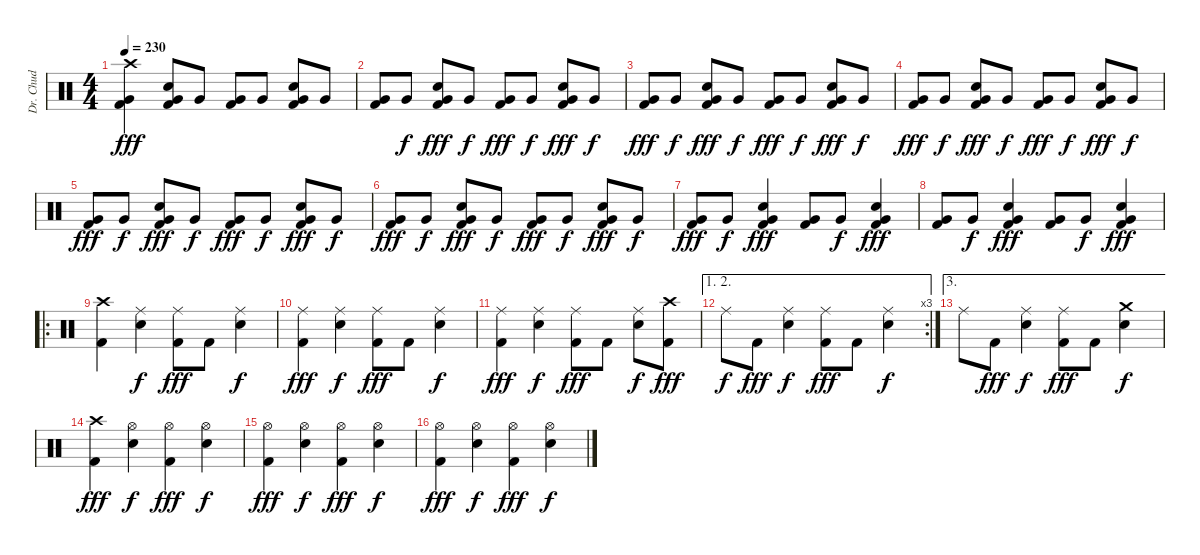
\track ("Dr. Chud" "Dr. Chud") {instrument percussion}
\staff {score}
\articulation defaults
\ts (4 4)
\tempo 230
\clef neutral
\ks c
("Crash high (hit)" "Very Low Tom (hit)" "Kick (hit) 2").4{dy fff} ("Snare (hit) 2" "Very Low Tom (hit)" "Kick (hit) 2").8 "Very Low Tom (hit)".8 ("Very Low Tom (hit)" "Kick (hit) 2").8 "Very Low Tom (hit)".8 ("Snare (hit) 2" "Very Low Tom (hit)" "Kick (hit) 2").8 "Very Low Tom (hit)".8 |
("Very Low Tom (hit)" "Kick (hit) 2").8 "Very Low Tom (hit)".8{dy f} ("Snare (hit) 2" "Very Low Tom (hit)" "Kick (hit) 2").8{dy fff} "Very Low Tom (hit)".8{dy f} ("Very Low Tom (hit)" "Kick (hit) 2").8{dy fff} "Very Low Tom (hit)".8{dy f} ("Snare (hit) 2" "Very Low Tom (hit)" "Kick (hit) 2").8{dy fff} "Very Low Tom (hit)".8{dy f} |
("Very Low Tom (hit)" "Kick (hit) 2").8{dy fff} "Very Low Tom (hit)".8{dy f} ("Snare (hit) 2" "Very Low Tom (hit)" "Kick (hit) 2").8{dy fff} "Very Low Tom (hit)".8{dy f} ("Very Low Tom (hit)" "Kick (hit) 2").8{dy fff} "Very Low Tom (hit)".8{dy f} ("Snare (hit) 2" "Very Low Tom (hit)" "Kick (hit) 2").8{dy fff} "Very Low Tom (hit)".8{dy f} |
("Very Low Tom (hit)" "Kick (hit) 2").8{dy fff} "Very Low Tom (hit)".8{dy f} ("Snare (hit) 2" "Very Low Tom (hit)" "Kick (hit) 2").8{dy fff} "Very Low Tom (hit)".8{dy f} ("Very Low Tom (hit)" "Kick (hit) 2").8{dy fff} "Very Low Tom (hit)".8{dy f} ("Snare (hit) 2" "Very Low Tom (hit)" "Kick (hit) 2").8{dy fff} "Very Low Tom (hit)".8{dy f} |
("Very Low Tom (hit)" "Kick (hit) 2").8{dy fff} "Very Low Tom (hit)".8{dy f} ("Snare (hit) 2" "Very Low Tom (hit)" "Kick (hit) 2").8{dy fff} "Very Low Tom (hit)".8{dy f} ("Very Low Tom (hit)" "Kick (hit) 2").8{dy fff} "Very Low Tom (hit)".8{dy f} ("Snare (hit) 2" "Very Low Tom (hit)" "Kick (hit) 2").8{dy fff} "Very Low Tom (hit)".8{dy f} |
("Very Low Tom (hit)" "Kick (hit) 2").8{dy fff} "Very Low Tom (hit)".8{dy f} ("Snare (hit) 2" "Very Low Tom (hit)" "Kick (hit) 2").8{dy fff} "Very Low Tom (hit)".8{dy f} ("Very Low Tom (hit)" "Kick (hit) 2").8{dy fff} "Very Low Tom (hit)".8{dy f} ("Snare (hit) 2" "Very Low Tom (hit)" "Kick (hit) 2").8{dy fff} "Very Low Tom (hit)".8{dy f} |
("Very Low Tom (hit)" "Kick (hit) 2").8{dy fff} "Very Low Tom (hit)".8{dy f} ("Snare (hit) 2" "Very Low Tom (hit)" "Kick (hit) 2").4{dy fff} ("Very Low Tom (hit)" "Kick (hit) 2").8 "Very Low Tom (hit)".8{dy f} ("Snare (hit) 2" "Very Low Tom (hit)" "Kick (hit) 2").4{dy fff} |
("Very Low Tom (hit)" "Kick (hit) 2").8 "Very Low Tom (hit)".8{dy f} ("Snare (hit) 2" "Very Low Tom (hit)" "Kick (hit) 2").4{dy fff} ("Very Low Tom (hit)" "Kick (hit) 2").8 "Very Low Tom (hit)".8{dy f} ("Snare (hit) 2" "Very Low Tom (hit)" "Kick (hit) 2").4{dy fff} |
\ro
("Crash high (hit)" "Kick (hit) 2").4 ("Ride (middle)" "Snare (hit) 2").4{dy f} ("Ride (middle)" "Kick (hit) 2").8{dy fff} "Kick (hit) 2".8 ("Ride (middle)" "Snare (hit) 2").4{dy f} |
("Ride (middle)" "Kick (hit) 2").4{dy fff} ("Ride (middle)" "Snare (hit) 2").4{dy f} ("Ride (middle)" "Kick (hit) 2").8{dy fff} "Kick (hit) 2".8 ("Ride (middle)" "Snare (hit) 2").4{dy f} |
("Ride (middle)" "Kick (hit) 2").4{dy fff} ("Ride (middle)" "Snare (hit) 2").4{dy f} ("Ride (middle)" "Kick (hit) 2").8{dy fff} "Kick (hit) 2".8 ("Ride (middle)" "Snare (hit) 2").8{dy f} ("Crash high (hit)" "Kick (hit) 2").8{dy fff} |
\ae (1 2)
\rc 3 "Ride (middle)".8{dy f} "Kick (hit) 2".8{dy fff}
("Ride (middle)" "Snare (hit) 2").4{dy f} ("Ride (middle)" "Kick (hit) 2").8{dy fff} "Kick (hit) 2".8 ("Ride (middle)" "Snare (hit) 2").4{dy f} |
\ae 3 "Ride (middle)".8 "Kick (hit) 2".8{dy fff}
("Ride (middle)" "Snare (hit) 2").4{dy f} ("Ride (middle)" "Kick (hit) 2").8{dy fff} "Kick (hit) 2".8 ("Crash medium (hit)" "Snare (hit) 2").4{dy f} |
("Crash high (hit)" "Kick (hit) 2").4{dy fff} ("Hi-Hat (open)" "Snare (hit) 2").4{dy f} ("Hi-Hat (open)" "Kick (hit) 2").4{dy fff} ("Hi-Hat (open)" "Snare (hit) 2").4{dy f} |
("Hi-Hat (open)" "Kick (hit) 2").4{dy fff} ("Hi-Hat (open)" "Snare (hit) 2").4{dy f} ("Hi-Hat (open)" "Kick (hit) 2").4{dy fff} ("Hi-Hat (open)" "Snare (hit) 2").4{dy f} |
("Hi-Hat (open)" "Kick (hit) 2").4{dy fff} ("Hi-Hat (open)" "Snare (hit) 2").4{dy f} ("Hi-Hat (open)" "Kick (hit) 2").4{dy fff} ("Hi-Hat (open)" "Snare (hit) 2").4{dy f}
